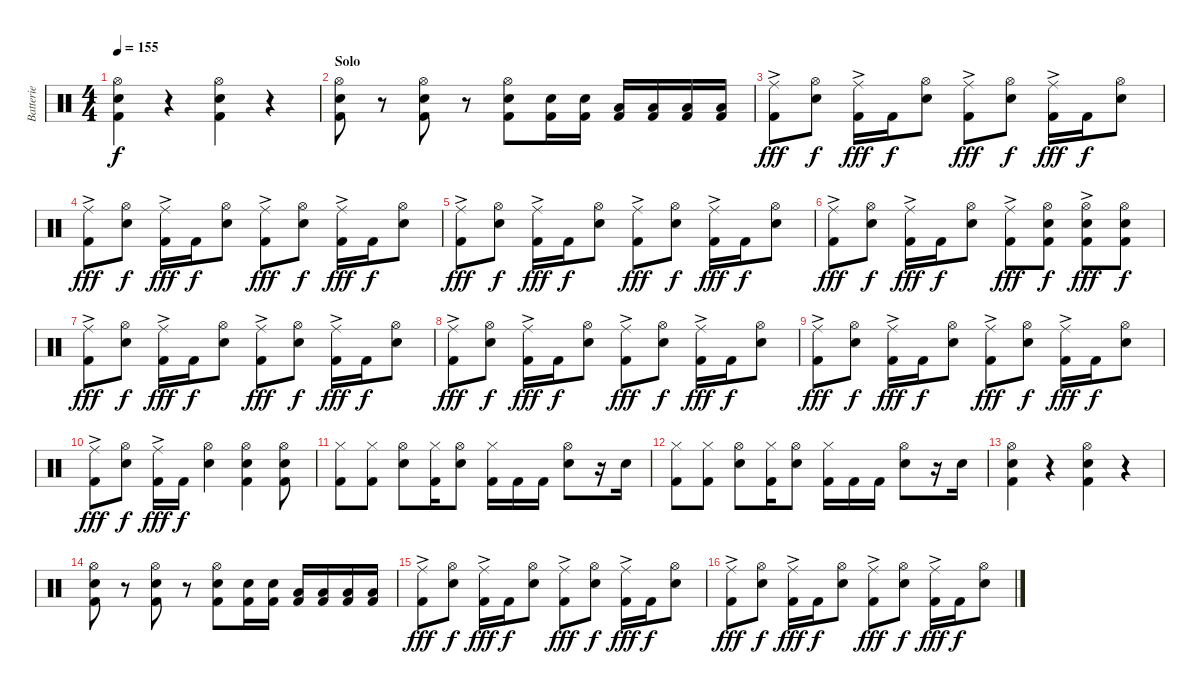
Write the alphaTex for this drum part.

\track ("Batterie" "Batterie") {instrument percussion}
\staff {score}
\articulation defaults
\ts (4 4)
\tempo 155
\clef neutral
\ks c
("Hi-Hat (open)" "Snare (hit) 2" "Kick (hit) 2").4{dy f} r.4 ("Hi-Hat (open)" "Snare (hit) 2" "Kick (hit) 2").4 r.4 |
\section ("" "Solo")
("Hi-Hat (open)" "Snare (hit) 2" "Kick (hit) 2").8 r.8 ("Hi-Hat (open)" "Snare (hit) 2" "Kick (hit) 2").8 r.8 ("Hi-Hat (open)" "Snare (hit) 2" "Kick (hit) 2").8 ("Snare (hit) 2" "Kick (hit) 2").16 ("Snare (hit) 2" "Kick (hit) 2").16 ("Low Tom (hit)" "Kick (hit) 2").16 ("Low Tom (hit)" "Kick (hit) 2").16 ("Low Floor Tom (hit)" "Kick (hit) 2").16 ("Low Floor Tom (hit)" "Kick (hit) 2").16 |
("Ride (middle)"{ac} "Kick (hit) 2").8{dy fff} ("Hi-Hat (open)" "Snare (hit) 2").8{dy f} ("Ride (middle)"{ac} "Kick (hit) 2").16{dy fff} "Kick (hit) 2".16{dy f} ("Hi-Hat (open)" "Snare (hit) 2").8 ("Ride (middle)"{ac} "Kick (hit) 2").8{dy fff} ("Hi-Hat (open)" "Snare (hit) 2").8{dy f} ("Ride (middle)"{ac} "Kick (hit) 2").16{dy fff} "Kick (hit) 2".16{dy f} ("Hi-Hat (open)" "Snare (hit) 2").8 |
("Ride (middle)"{ac} "Kick (hit) 2").8{dy fff} ("Hi-Hat (open)" "Snare (hit) 2").8{dy f} ("Ride (middle)"{ac} "Kick (hit) 2").16{dy fff} "Kick (hit) 2".16{dy f} ("Hi-Hat (open)" "Snare (hit) 2").8 ("Ride (middle)"{ac} "Kick (hit) 2").8{dy fff} ("Hi-Hat (open)" "Snare (hit) 2").8{dy f} ("Ride (middle)"{ac} "Kick (hit) 2").16{dy fff} "Kick (hit) 2".16{dy f} ("Hi-Hat (open)" "Snare (hit) 2").8 |
("Ride (middle)"{ac} "Kick (hit) 2").8{dy fff} ("Hi-Hat (open)" "Snare (hit) 2").8{dy f} ("Ride (middle)"{ac} "Kick (hit) 2").16{dy fff} "Kick (hit) 2".16{dy f} ("Hi-Hat (open)" "Snare (hit) 2").8 ("Ride (middle)"{ac} "Kick (hit) 2").8{dy fff} ("Hi-Hat (open)" "Snare (hit) 2").8{dy f} ("Ride (middle)"{ac} "Kick (hit) 2").16{dy fff} "Kick (hit) 2".16{dy f} ("Hi-Hat (open)" "Snare (hit) 2").8 |
("Ride (middle)"{ac} "Kick (hit) 2").8{dy fff} ("Hi-Hat (open)" "Snare (hit) 2").8{dy f} ("Ride (middle)"{ac} "Kick (hit) 2").16{dy fff} "Kick (hit) 2".16{dy f} ("Hi-Hat (open)" "Snare (hit) 2").8 ("Ride (middle)"{ac} "Kick (hit) 2").8{dy fff} ("Hi-Hat (open)" "Snare (hit) 2" "Kick (hit) 2").8{dy f} ("Hi-Hat (open)"{ac} "Snare (hit) 2" "Kick (hit) 2").8{dy fff} ("Hi-Hat (open)" "Snare (hit) 2" "Kick (hit) 2").8{dy f} |
("Ride (middle)"{ac} "Kick (hit) 2").8{dy fff} ("Hi-Hat (open)" "Snare (hit) 2").8{dy f} ("Ride (middle)"{ac} "Kick (hit) 2").16{dy fff} "Kick (hit) 2".16{dy f} ("Hi-Hat (open)" "Snare (hit) 2").8 ("Ride (middle)"{ac} "Kick (hit) 2").8{dy fff} ("Hi-Hat (open)" "Snare (hit) 2").8{dy f} ("Ride (middle)"{ac} "Kick (hit) 2").16{dy fff} "Kick (hit) 2".16{dy f} ("Hi-Hat (open)" "Snare (hit) 2").8 |
("Ride (middle)"{ac} "Kick (hit) 2").8{dy fff} ("Hi-Hat (open)" "Snare (hit) 2").8{dy f} ("Ride (middle)"{ac} "Kick (hit) 2").16{dy fff} "Kick (hit) 2".16{dy f} ("Hi-Hat (open)" "Snare (hit) 2").8 ("Ride (middle)"{ac} "Kick (hit) 2").8{dy fff} ("Hi-Hat (open)" "Snare (hit) 2").8{dy f} ("Ride (middle)"{ac} "Kick (hit) 2").16{dy fff} "Kick (hit) 2".16{dy f} ("Hi-Hat (open)" "Snare (hit) 2").8 |
("Ride (middle)"{ac} "Kick (hit) 2").8{dy fff} ("Hi-Hat (open)" "Snare (hit) 2").8{dy f} ("Ride (middle)"{ac} "Kick (hit) 2").16{dy fff} "Kick (hit) 2".16{dy f} ("Hi-Hat (open)" "Snare (hit) 2").8 ("Ride (middle)"{ac} "Kick (hit) 2").8{dy fff} ("Hi-Hat (open)" "Snare (hit) 2").8{dy f} ("Ride (middle)"{ac} "Kick (hit) 2").16{dy fff} "Kick (hit) 2".16{dy f} ("Hi-Hat (open)" "Snare (hit) 2").8 |
("Ride (middle)"{ac} "Kick (hit) 2").8{dy fff} ("Hi-Hat (open)" "Snare (hit) 2").8{dy f} ("Ride (middle)"{ac} "Kick (hit) 2").16{dy fff} "Kick (hit) 2".16{dy f} ("Hi-Hat (open)" "Snare (hit) 2").4 ("Hi-Hat (open)" "Snare (hit) 2" "Kick (hit) 2").4 ("Hi-Hat (open)" "Snare (hit) 2" "Kick (hit) 2").8 |
\section ("" "")
("Hi-Hat (closed)" "Kick (hit) 2").8 ("Hi-Hat (closed)" "Kick (hit) 2").8 ("Hi-Hat (open)" "Snare (hit) 2").8 ("Hi-Hat (closed)" "Kick (hit) 2").16 ("Hi-Hat (open)" "Snare (hit) 2").8 ("Hi-Hat (closed)" "Kick (hit) 2").16 "Kick (hit) 2".16 "Kick (hit) 2".16 ("Hi-Hat (open)" "Snare (hit) 2").8 r.16 "Snare (hit) 2".16 |
("Hi-Hat (closed)" "Kick (hit) 2").8 ("Hi-Hat (closed)" "Kick (hit) 2").8 ("Hi-Hat (open)" "Snare (hit) 2").8 ("Hi-Hat (closed)" "Kick (hit) 2").16 ("Hi-Hat (open)" "Snare (hit) 2").8 ("Hi-Hat (closed)" "Kick (hit) 2").16 "Kick (hit) 2".16 "Kick (hit) 2".16 ("Hi-Hat (open)" "Snare (hit) 2").8 r.16 "Snare (hit) 2".16 |
("Hi-Hat (open)" "Snare (hit) 2" "Kick (hit) 2").4 r.4 ("Hi-Hat (open)" "Snare (hit) 2" "Kick (hit) 2").4 r.4 |
("Hi-Hat (open)" "Snare (hit) 2" "Kick (hit) 2").8 r.8 ("Hi-Hat (open)" "Snare (hit) 2" "Kick (hit) 2").8 r.8 ("Hi-Hat (open)" "Snare (hit) 2" "Kick (hit) 2").8 ("Snare (hit) 2" "Kick (hit) 2").16 ("Snare (hit) 2" "Kick (hit) 2").16 ("Low Tom (hit)" "Kick (hit) 2").16 ("Low Tom (hit)" "Kick (hit) 2").16 ("Low Floor Tom (hit)" "Kick (hit) 2").16 ("Low Floor Tom (hit)" "Kick (hit) 2").16 |
("Ride (middle)"{ac} "Kick (hit) 2").8{dy fff} ("Hi-Hat (open)" "Snare (hit) 2").8{dy f} ("Ride (middle)"{ac} "Kick (hit) 2").16{dy fff} "Kick (hit) 2".16{dy f} ("Hi-Hat (open)" "Snare (hit) 2").8 ("Ride (middle)"{ac} "Kick (hit) 2").8{dy fff} ("Hi-Hat (open)" "Snare (hit) 2").8{dy f} ("Ride (middle)"{ac} "Kick (hit) 2").16{dy fff} "Kick (hit) 2".16{dy f} ("Hi-Hat (open)" "Snare (hit) 2").8 |
("Ride (middle)"{ac} "Kick (hit) 2").8{dy fff} ("Hi-Hat (open)" "Snare (hit) 2").8{dy f} ("Ride (middle)"{ac} "Kick (hit) 2").16{dy fff} "Kick (hit) 2".16{dy f} ("Hi-Hat (open)" "Snare (hit) 2").8 ("Ride (middle)"{ac} "Kick (hit) 2").8{dy fff} ("Hi-Hat (open)" "Snare (hit) 2").8{dy f} ("Ride (middle)"{ac} "Kick (hit) 2").16{dy fff} "Kick (hit) 2".16{dy f} ("Hi-Hat (open)" "Snare (hit) 2").8
